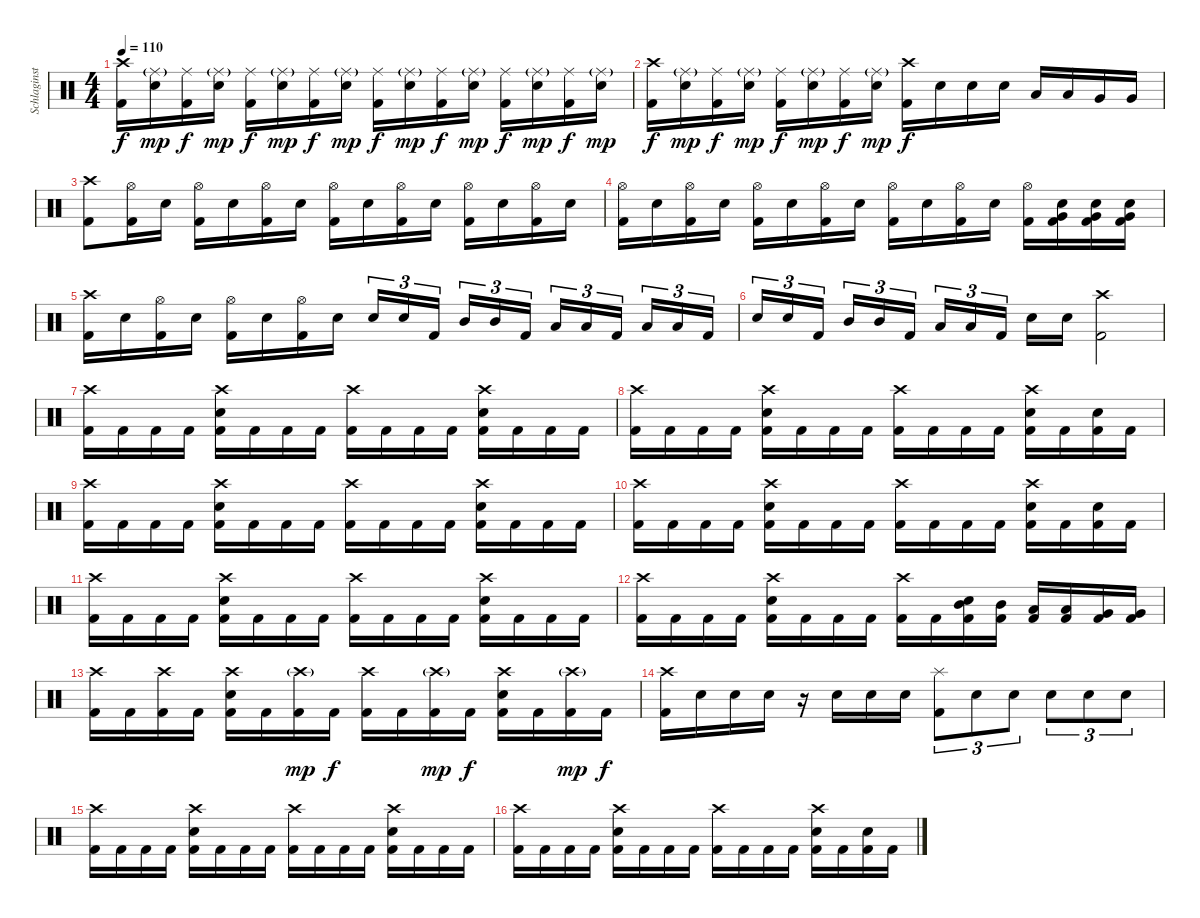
\track ("Schlaginstrumente - Auswahl" "Schlaginst") {instrument percussion}
\staff {score}
\articulation defaults
\ts (4 4)
\tempo 110
\clef neutral
\ks c
("Crash high (hit)" "Kick (hit) 2").16{dy f} ("Ride (middle)"{g} "Snare (hit) 2").16{dy mp} ("Ride (middle)" "Kick (hit) 2").16{dy f} ("Ride (middle)"{g} "Snare (hit) 2").16{dy mp} ("Ride (middle)" "Kick (hit) 2").16{dy f} ("Ride (middle)"{g} "Snare (hit) 2").16{dy mp} ("Ride (middle)" "Kick (hit) 2").16{dy f} ("Ride (middle)"{g} "Snare (hit) 2").16{dy mp} ("Ride (middle)" "Kick (hit) 2").16{dy f} ("Ride (middle)"{g} "Snare (hit) 2").16{dy mp} ("Ride (middle)" "Kick (hit) 2").16{dy f} ("Ride (middle)"{g} "Snare (hit) 2").16{dy mp} ("Ride (middle)" "Kick (hit) 2").16{dy f} ("Ride (middle)"{g} "Snare (hit) 2").16{dy mp} ("Ride (middle)" "Kick (hit) 2").16{dy f} ("Ride (middle)"{g} "Snare (hit) 2").16{dy mp} |
("Crash high (hit)" "Kick (hit) 2").16{dy f} ("Ride (middle)"{g} "Snare (hit) 2").16{dy mp} ("Ride (middle)" "Kick (hit) 2").16{dy f} ("Ride (middle)"{g} "Snare (hit) 2").16{dy mp} ("Ride (middle)" "Kick (hit) 2").16{dy f} ("Ride (middle)"{g} "Snare (hit) 2").16{dy mp} ("Ride (middle)" "Kick (hit) 2").16{dy f} ("Ride (middle)"{g} "Snare (hit) 2").16{dy mp} ("Crash high (hit)" "Kick (hit) 2").16{dy f} "Snare (hit) 2".16 "Snare (hit) 2".16 "Snare (hit) 2".16 "Low Tom (hit)".16 "Low Tom (hit)".16 "Very Low Tom (hit)".16 "Very Low Tom (hit)".16 |
("Crash high (hit)" "Kick (hit) 2").8 ("Hi-Hat (open)" "Kick (hit) 2").16 "Snare (hit) 2".16 ("Hi-Hat (open)" "Kick (hit) 2").16 "Snare (hit) 2".16 ("Hi-Hat (open)" "Kick (hit) 2").16 "Snare (hit) 2".16 ("Hi-Hat (open)" "Kick (hit) 2").16 "Snare (hit) 2".16 ("Hi-Hat (open)" "Kick (hit) 2").16 "Snare (hit) 2".16 ("Hi-Hat (open)" "Kick (hit) 2").16 "Snare (hit) 2".16 ("Hi-Hat (open)" "Kick (hit) 2").16 "Snare (hit) 2".16 |
("Hi-Hat (open)" "Kick (hit) 2").16 "Snare (hit) 2".16 ("Hi-Hat (open)" "Kick (hit) 2").16 "Snare (hit) 2".16 ("Hi-Hat (open)" "Kick (hit) 2").16 "Snare (hit) 2".16 ("Hi-Hat (open)" "Kick (hit) 2").16 "Snare (hit) 2".16 ("Hi-Hat (open)" "Kick (hit) 2").16 "Snare (hit) 2".16 ("Hi-Hat (open)" "Kick (hit) 2").16 "Snare (hit) 2".16 ("Hi-Hat (open)" "Kick (hit) 2").16 ("Snare (hit) 2" "Very Low Tom (hit)" "Kick (hit) 2").16 ("Snare (hit) 2" "Very Low Tom (hit)" "Kick (hit) 2").16 ("Snare (hit) 2" "Very Low Tom (hit)" "Kick (hit) 2").16 |
("Crash high (hit)" "Kick (hit) 2").16 "Snare (hit) 2".16 ("Hi-Hat (open)" "Kick (hit) 2").16 "Snare (hit) 2".16 ("Hi-Hat (open)" "Kick (hit) 2").16 "Snare (hit) 2".16 ("Hi-Hat (open)" "Kick (hit) 2").16 "Snare (hit) 2".16 "Snare (hit) 2".16{tu (3 2)} "Snare (hit) 2".16{tu (3 2)} "Kick (hit) 2".16{tu (3 2) beam splitsecondary} "Mid Tom (hit)".16{tu (3 2)} "Mid Tom (hit)".16{tu (3 2)} "Kick (hit) 2".16{tu (3 2)} "Low Tom (hit)".16{tu (3 2)} "Low Tom (hit)".16{tu (3 2)} "Kick (hit) 2".16{tu (3 2) beam splitsecondary} "Low Tom (hit)".16{tu (3 2)} "Low Tom (hit)".16{tu (3 2)} "Kick (hit) 2".16{tu (3 2)} |
"Snare (hit) 2".16{tu (3 2)} "Snare (hit) 2".16{tu (3 2)} "Kick (hit) 2".16{tu (3 2) beam splitsecondary} "Mid Tom (hit)".16{tu (3 2)} "Mid Tom (hit)".16{tu (3 2)} "Kick (hit) 2".16{tu (3 2)} "Low Tom (hit)".16{tu (3 2)} "Low Tom (hit)".16{tu (3 2)} "Kick (hit) 2".16{tu (3 2) beam splitsecondary} "Snare (hit) 2".16 "Snare (hit) 2".16 ("Crash high (hit)" "Kick (hit) 2").2 |
("Crash high (hit)" "Kick (hit) 2").16 "Kick (hit) 2".16 "Kick (hit) 2".16 "Kick (hit) 2".16 ("Crash high (hit)" "Snare (hit) 2" "Kick (hit) 2").16 "Kick (hit) 2".16 "Kick (hit) 2".16 "Kick (hit) 2".16 ("Crash high (hit)" "Kick (hit) 2").16 "Kick (hit) 2".16 "Kick (hit) 2".16 "Kick (hit) 2".16 ("Crash high (hit)" "Snare (hit) 2" "Kick (hit) 2").16 "Kick (hit) 2".16 "Kick (hit) 2".16 "Kick (hit) 2".16 |
("Crash high (hit)" "Kick (hit) 2").16 "Kick (hit) 2".16 "Kick (hit) 2".16 "Kick (hit) 2".16 ("Crash high (hit)" "Snare (hit) 2" "Kick (hit) 2").16 "Kick (hit) 2".16 "Kick (hit) 2".16 "Kick (hit) 2".16 ("Crash high (hit)" "Kick (hit) 2").16 "Kick (hit) 2".16 "Kick (hit) 2".16 "Kick (hit) 2".16 ("Crash high (hit)" "Snare (hit) 2" "Kick (hit) 2").16 "Kick (hit) 2".16 ("Snare (hit) 2" "Kick (hit) 2").16 "Kick (hit) 2".16 |
("Crash high (hit)" "Kick (hit) 2").16 "Kick (hit) 2".16 "Kick (hit) 2".16 "Kick (hit) 2".16 ("Crash high (hit)" "Snare (hit) 2" "Kick (hit) 2").16 "Kick (hit) 2".16 "Kick (hit) 2".16 "Kick (hit) 2".16 ("Crash high (hit)" "Kick (hit) 2").16 "Kick (hit) 2".16 "Kick (hit) 2".16 "Kick (hit) 2".16 ("Crash high (hit)" "Snare (hit) 2" "Kick (hit) 2").16 "Kick (hit) 2".16 "Kick (hit) 2".16 "Kick (hit) 2".16 |
("Crash high (hit)" "Kick (hit) 2").16 "Kick (hit) 2".16 "Kick (hit) 2".16 "Kick (hit) 2".16 ("Crash high (hit)" "Snare (hit) 2" "Kick (hit) 2").16 "Kick (hit) 2".16 "Kick (hit) 2".16 "Kick (hit) 2".16 ("Crash high (hit)" "Kick (hit) 2").16 "Kick (hit) 2".16 "Kick (hit) 2".16 "Kick (hit) 2".16 ("Crash high (hit)" "Snare (hit) 2" "Kick (hit) 2").16 "Kick (hit) 2".16 ("Snare (hit) 2" "Kick (hit) 2").16 "Kick (hit) 2".16 |
("Crash high (hit)" "Kick (hit) 2").16 "Kick (hit) 2".16 "Kick (hit) 2".16 "Kick (hit) 2".16 ("Crash high (hit)" "Snare (hit) 2" "Kick (hit) 2").16 "Kick (hit) 2".16 "Kick (hit) 2".16 "Kick (hit) 2".16 ("Crash high (hit)" "Kick (hit) 2").16 "Kick (hit) 2".16 "Kick (hit) 2".16 "Kick (hit) 2".16 ("Crash high (hit)" "Snare (hit) 2" "Kick (hit) 2").16 "Kick (hit) 2".16 "Kick (hit) 2".16 "Kick (hit) 2".16 |
("Crash high (hit)" "Kick (hit) 2").16 "Kick (hit) 2".16 "Kick (hit) 2".16 "Kick (hit) 2".16 ("Crash high (hit)" "Snare (hit) 2" "Kick (hit) 2").16 "Kick (hit) 2".16 "Kick (hit) 2".16 "Kick (hit) 2".16 ("Crash high (hit)" "Kick (hit) 2").16 "Kick (hit) 2".16 ("Mid Tom (hit)" "Snare (hit) 2" "Kick (hit) 2").16 ("Mid Tom (hit)" "Kick (hit) 2").16 ("Low Tom (hit)" "Kick (hit) 2").16 ("Low Tom (hit)" "Kick (hit) 2").16 ("Very Low Tom (hit)" "Kick (hit) 2").16 ("Very Low Tom (hit)" "Kick (hit) 2").16 |
("Crash high (hit)" "Kick (hit) 2").16 "Kick (hit) 2".16 ("Crash high (hit)" "Kick (hit) 2").16 "Kick (hit) 2".16 ("Crash high (hit)" "Snare (hit) 2" "Kick (hit) 2").16 "Kick (hit) 2".16 ("Crash high (hit)"{g} "Kick (hit) 2").16{dy mp} "Kick (hit) 2".16{dy f} ("Crash high (hit)" "Kick (hit) 2").16 "Kick (hit) 2".16 ("Crash high (hit)"{g} "Kick (hit) 2").16{dy mp} "Kick (hit) 2".16{dy f} ("Crash high (hit)" "Snare (hit) 2" "Kick (hit) 2").16 "Kick (hit) 2".16 ("Crash high (hit)"{g} "Kick (hit) 2").16{dy mp} "Kick (hit) 2".16{dy f} |
("Crash high (hit)" "Kick (hit) 2").16 "Snare (hit) 2".16 "Snare (hit) 2".16 "Snare (hit) 2".16 r.16 "Snare (hit) 2".16 "Snare (hit) 2".16 "Snare (hit) 2".16 ("Splash (hit)" "Kick (hit) 2").8{tu (3 2)} "Snare (hit) 2".8{tu (3 2)} "Snare (hit) 2".8{tu (3 2)} "Snare (hit) 2".8{tu (3 2)} "Snare (hit) 2".8{tu (3 2)} "Snare (hit) 2".8{tu (3 2)} |
("Crash high (hit)" "Kick (hit) 2").16 "Kick (hit) 2".16 "Kick (hit) 2".16 "Kick (hit) 2".16 ("Crash high (hit)" "Snare (hit) 2" "Kick (hit) 2").16 "Kick (hit) 2".16 "Kick (hit) 2".16 "Kick (hit) 2".16 ("Crash high (hit)" "Kick (hit) 2").16 "Kick (hit) 2".16 "Kick (hit) 2".16 "Kick (hit) 2".16 ("Crash high (hit)" "Snare (hit) 2" "Kick (hit) 2").16 "Kick (hit) 2".16 "Kick (hit) 2".16 "Kick (hit) 2".16 |
("Crash high (hit)" "Kick (hit) 2").16 "Kick (hit) 2".16 "Kick (hit) 2".16 "Kick (hit) 2".16 ("Crash high (hit)" "Snare (hit) 2" "Kick (hit) 2").16 "Kick (hit) 2".16 "Kick (hit) 2".16 "Kick (hit) 2".16 ("Crash high (hit)" "Kick (hit) 2").16 "Kick (hit) 2".16 "Kick (hit) 2".16 "Kick (hit) 2".16 ("Crash high (hit)" "Snare (hit) 2" "Kick (hit) 2").16 "Kick (hit) 2".16 ("Snare (hit) 2" "Kick (hit) 2").16 "Kick (hit) 2".16
